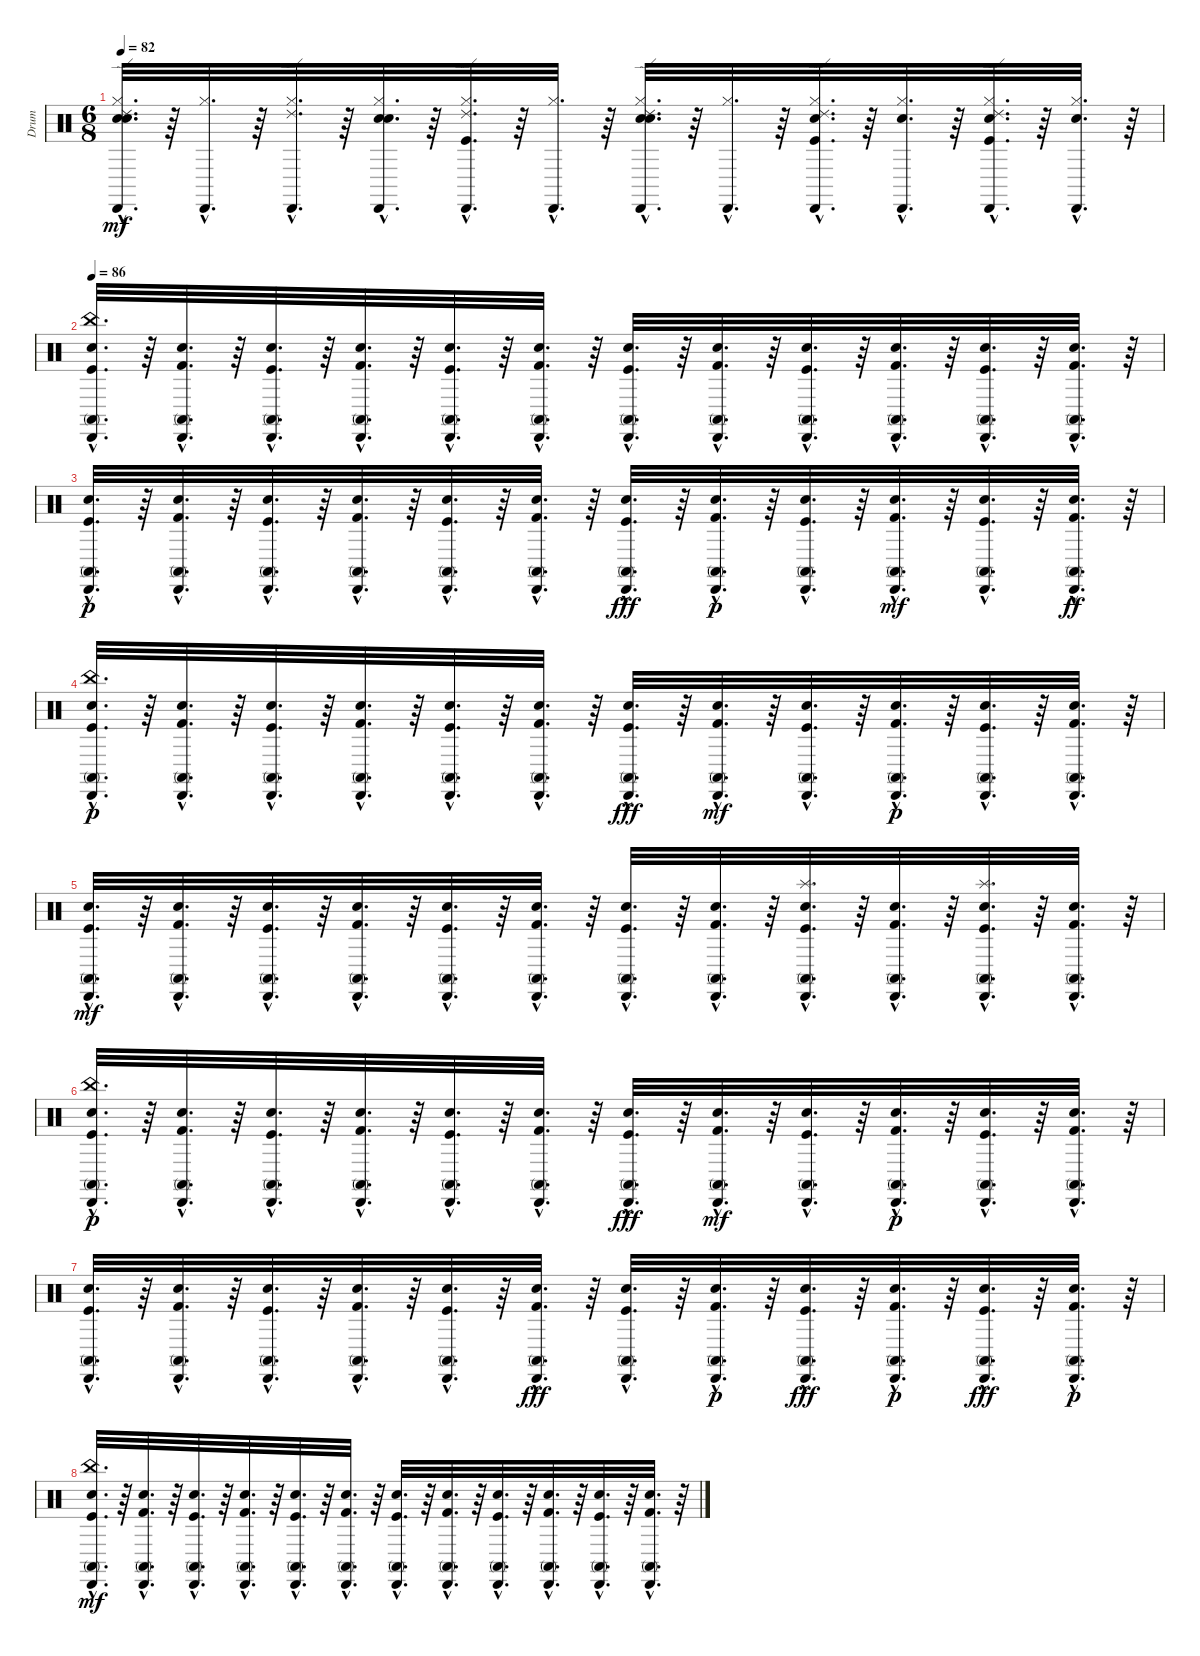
\track ("Drum" "Drum") {instrument percussion}
\staff {score}
\articulation defaults
\ts (6 8)
\tempo 82
\clef neutral
\ks c
("Electric Snare (hit)"{hac} "Cabasa (hit)"{hac} "Ride (edge) 2"{hac} "Snare (hit) 2"{hac} "Hi-Hat (closed)"{hac}).32{d dy mf} r.64 ("Cabasa (hit)"{hac} "Hi-Hat (closed)"{hac}).32{d} r.64 ("Cabasa (hit)"{hac} "Ride (edge) 2"{hac} "Hi-Hat (closed)"{hac}).32{d} r.64 ("Electric Snare (hit)"{hac} "Cabasa (hit)"{hac} "Hi-Hat (closed)"{hac} "Snare (hit) 2"{hac}).32{d} r.64 ("Cabasa (hit)"{hac} "Ride (edge) 2"{hac} "Hi-Hat (closed)"{hac} "Kick (hit)"{hac}).32{d} r.64 ("Cabasa (hit)"{hac} "Hi-Hat (closed)"{hac}).32{d} r.64 ("Electric Snare (hit)"{hac} "Cabasa (hit)"{hac} "Ride (edge) 2"{hac} "Snare (hit) 2"{hac} "Hi-Hat (closed)"{hac}).32{d} r.64 ("Cabasa (hit)"{hac} "Hi-Hat (closed)"{hac}).32{d} r.64 ("Kick (hit)"{hac} "Cabasa (hit)"{hac} "Ride (edge) 2"{hac} "Hi-Hat (closed)"{hac} "Snare (hit) 2"{hac}).32{d} r.64 ("Cabasa (hit)"{hac} "Hi-Hat (closed)"{hac} "Snare (hit) 2"{hac}).32{d} r.64 ("Cabasa (hit)"{hac} "Ride (edge) 2"{hac} "Snare (hit) 2"{hac} "Kick (hit)"{hac} "Hi-Hat (closed)"{hac}).32{d} r.64 ("Cabasa (hit)"{hac} "Snare (hit) 2"{hac} "Hi-Hat (closed)"{hac}).32{d} r.64 |
\tempo 86
("Electric Snare (hit)"{hac} "China (hit)"{hac} "Kick (hit)"{hac} "Cabasa (hit)"{hac} "Conga high (mute)"{hac}).32{d} r.64 ("Electric Snare (hit)"{hac} "Kick (hit) 2"{hac} "Cabasa (hit)"{hac} "Conga high (mute)"{hac}).32{d} r.64 ("Electric Snare (hit)"{hac} "Kick (hit)"{hac} "Cabasa (hit)"{hac} "Conga high (mute)"{hac}).32{d} r.64 ("Electric Snare (hit)"{hac} "Kick (hit) 2"{hac} "Cabasa (hit)"{hac} "Conga high (mute)"{hac}).32{d} r.64 ("Electric Snare (hit)"{hac} "Kick (hit)"{hac} "Cabasa (hit)"{hac} "Conga high (mute)"{hac}).32{d} r.64 ("Electric Snare (hit)"{hac} "Kick (hit) 2"{hac} "Cabasa (hit)"{hac} "Conga high (mute)"{hac}).32{d} r.64 ("Electric Snare (hit)"{hac} "Kick (hit)"{hac} "Cabasa (hit)"{hac} "Conga high (mute)"{hac}).32{d} r.64 ("Electric Snare (hit)"{hac} "Kick (hit) 2"{hac} "Cabasa (hit)"{hac} "Conga high (mute)"{hac}).32{d} r.64 ("Electric Snare (hit)"{hac} "Kick (hit)"{hac} "Cabasa (hit)"{hac} "Conga high (mute)"{hac}).32{d} r.64 ("Electric Snare (hit)"{hac} "Kick (hit) 2"{hac} "Cabasa (hit)"{hac} "Conga high (mute)"{hac}).32{d} r.64 ("Electric Snare (hit)"{hac} "Kick (hit)"{hac} "Cabasa (hit)"{hac} "Conga high (mute)"{hac}).32{d} r.64 ("Electric Snare (hit)"{hac} "Kick (hit) 2"{hac} "Cabasa (hit)"{hac} "Conga high (mute)"{hac}).32{d} r.64 |
("Conga high (mute)"{hac} "Cabasa (hit)"{hac} "Kick (hit)"{hac} "Electric Snare (hit)"{hac}).32{d dy p} r.64 ("Conga high (mute)"{hac} "Cabasa (hit)"{hac} "Kick (hit) 2"{hac} "Electric Snare (hit)"{hac}).32{d} r.64 ("Conga high (mute)"{hac} "Cabasa (hit)"{hac} "Kick (hit)"{hac} "Electric Snare (hit)"{hac}).32{d} r.64 ("Conga high (mute)"{hac} "Cabasa (hit)"{hac} "Kick (hit) 2"{hac} "Electric Snare (hit)"{hac}).32{d} r.64 ("Conga high (mute)"{hac} "Cabasa (hit)"{hac} "Kick (hit)"{hac} "Electric Snare (hit)"{hac}).32{d} r.64 ("Conga high (mute)"{hac} "Cabasa (hit)"{hac} "Kick (hit) 2"{hac} "Electric Snare (hit)"{hac}).32{d} r.64 ("Conga high (mute)"{hac} "Cabasa (hit)"{hac} "Kick (hit)"{hac} "Electric Snare (hit)"{hac}).32{d dy fff} r.64 ("Conga high (mute)"{hac} "Cabasa (hit)"{hac} "Kick (hit) 2"{hac} "Electric Snare (hit)"{hac}).32{d dy p} r.64 ("Conga high (mute)"{hac} "Cabasa (hit)"{hac} "Kick (hit)"{hac} "Electric Snare (hit)"{hac}).32{d} r.64 ("Conga high (mute)"{hac} "Cabasa (hit)"{hac} "Kick (hit) 2"{hac} "Electric Snare (hit)"{hac}).32{d dy mf} r.64 ("Conga high (mute)"{hac} "Cabasa (hit)"{hac} "Kick (hit)"{hac} "Electric Snare (hit)"{hac}).32{d} r.64 ("Conga high (mute)"{hac} "Cabasa (hit)"{hac} "Kick (hit) 2"{hac} "Electric Snare (hit)"{hac}).32{d dy ff} r.64 |
("Conga high (mute)"{hac} "Cabasa (hit)"{hac} "Kick (hit)"{hac} "China (hit)"{hac} "Electric Snare (hit)"{hac}).32{d dy p} r.64 ("Conga high (mute)"{hac} "Cabasa (hit)"{hac} "Kick (hit) 2"{hac} "Electric Snare (hit)"{hac}).32{d} r.64 ("Conga high (mute)"{hac} "Cabasa (hit)"{hac} "Kick (hit)"{hac} "Electric Snare (hit)"{hac}).32{d} r.64 ("Conga high (mute)"{hac} "Cabasa (hit)"{hac} "Kick (hit) 2"{hac} "Electric Snare (hit)"{hac}).32{d} r.64 ("Conga high (mute)"{hac} "Cabasa (hit)"{hac} "Kick (hit)"{hac} "Electric Snare (hit)"{hac}).32{d} r.64 ("Conga high (mute)"{hac} "Cabasa (hit)"{hac} "Kick (hit) 2"{hac} "Electric Snare (hit)"{hac}).32{d} r.64 ("Conga high (mute)"{hac} "Cabasa (hit)"{hac} "Kick (hit)"{hac} "Electric Snare (hit)"{hac}).32{d dy fff} r.64 ("Conga high (mute)"{hac} "Cabasa (hit)"{hac} "Kick (hit) 2"{hac} "Electric Snare (hit)"{hac}).32{d dy mf} r.64 ("Conga high (mute)"{hac} "Cabasa (hit)"{hac} "Kick (hit)"{hac} "Electric Snare (hit)"{hac}).32{d} r.64 ("Conga high (mute)"{hac} "Cabasa (hit)"{hac} "Kick (hit) 2"{hac} "Electric Snare (hit)"{hac}).32{d dy p} r.64 ("Conga high (mute)"{hac} "Cabasa (hit)"{hac} "Kick (hit)"{hac} "Electric Snare (hit)"{hac}).32{d} r.64 ("Conga high (mute)"{hac} "Cabasa (hit)"{hac} "Kick (hit) 2"{hac} "Electric Snare (hit)"{hac}).32{d} r.64 |
("Electric Snare (hit)"{hac} "Kick (hit)"{hac} "Cabasa (hit)"{hac} "Conga high (mute)"{hac}).32{d dy mf} r.64 ("Electric Snare (hit)"{hac} "Kick (hit) 2"{hac} "Cabasa (hit)"{hac} "Conga high (mute)"{hac}).32{d} r.64 ("Electric Snare (hit)"{hac} "Kick (hit)"{hac} "Cabasa (hit)"{hac} "Conga high (mute)"{hac}).32{d} r.64 ("Electric Snare (hit)"{hac} "Kick (hit) 2"{hac} "Cabasa (hit)"{hac} "Conga high (mute)"{hac}).32{d} r.64 ("Electric Snare (hit)"{hac} "Kick (hit)"{hac} "Cabasa (hit)"{hac} "Conga high (mute)"{hac}).32{d} r.64 ("Electric Snare (hit)"{hac} "Kick (hit) 2"{hac} "Cabasa (hit)"{hac} "Conga high (mute)"{hac}).32{d} r.64 ("Electric Snare (hit)"{hac} "Kick (hit)"{hac} "Cabasa (hit)"{hac} "Conga high (mute)"{hac}).32{d} r.64 ("Electric Snare (hit)"{hac} "Kick (hit) 2"{hac} "Cabasa (hit)"{hac} "Conga high (mute)"{hac}).32{d} r.64 ("Splash (hit)"{hac} "Electric Snare (hit)"{hac} "Kick (hit)"{hac} "Cabasa (hit)"{hac} "Conga high (mute)"{hac}).32{d} r.64 ("Electric Snare (hit)"{hac} "Kick (hit) 2"{hac} "Cabasa (hit)"{hac} "Conga high (mute)"{hac}).32{d} r.64 ("Splash (hit)"{hac} "Electric Snare (hit)"{hac} "Kick (hit)"{hac} "Cabasa (hit)"{hac} "Conga high (mute)"{hac}).32{d} r.64 ("Electric Snare (hit)"{hac} "Kick (hit) 2"{hac} "Cabasa (hit)"{hac} "Conga high (mute)"{hac}).32{d} r.64 |
("Conga high (mute)"{hac} "Cabasa (hit)"{hac} "Kick (hit)"{hac} "China (hit)"{hac} "Electric Snare (hit)"{hac}).32{d dy p} r.64 ("Conga high (mute)"{hac} "Cabasa (hit)"{hac} "Kick (hit) 2"{hac} "Electric Snare (hit)"{hac}).32{d} r.64 ("Conga high (mute)"{hac} "Cabasa (hit)"{hac} "Kick (hit)"{hac} "Electric Snare (hit)"{hac}).32{d} r.64 ("Conga high (mute)"{hac} "Cabasa (hit)"{hac} "Kick (hit) 2"{hac} "Electric Snare (hit)"{hac}).32{d} r.64 ("Conga high (mute)"{hac} "Cabasa (hit)"{hac} "Kick (hit)"{hac} "Electric Snare (hit)"{hac}).32{d} r.64 ("Conga high (mute)"{hac} "Cabasa (hit)"{hac} "Kick (hit) 2"{hac} "Electric Snare (hit)"{hac}).32{d} r.64 ("Conga high (mute)"{hac} "Cabasa (hit)"{hac} "Kick (hit)"{hac} "Electric Snare (hit)"{hac}).32{d dy fff} r.64 ("Conga high (mute)"{hac} "Cabasa (hit)"{hac} "Kick (hit) 2"{hac} "Electric Snare (hit)"{hac}).32{d dy mf} r.64 ("Conga high (mute)"{hac} "Cabasa (hit)"{hac} "Kick (hit)"{hac} "Electric Snare (hit)"{hac}).32{d} r.64 ("Conga high (mute)"{hac} "Cabasa (hit)"{hac} "Kick (hit) 2"{hac} "Electric Snare (hit)"{hac}).32{d dy p} r.64 ("Conga high (mute)"{hac} "Cabasa (hit)"{hac} "Kick (hit)"{hac} "Electric Snare (hit)"{hac}).32{d} r.64 ("Conga high (mute)"{hac} "Cabasa (hit)"{hac} "Kick (hit) 2"{hac} "Electric Snare (hit)"{hac}).32{d} r.64 |
("Conga high (mute)"{hac} "Cabasa (hit)"{hac} "Kick (hit)"{hac} "Electric Snare (hit)"{hac}).32{d} r.64 ("Conga high (mute)"{hac} "Cabasa (hit)"{hac} "Kick (hit) 2"{hac} "Electric Snare (hit)"{hac}).32{d} r.64 ("Conga high (mute)"{hac} "Cabasa (hit)"{hac} "Kick (hit)"{hac} "Electric Snare (hit)"{hac}).32{d} r.64 ("Conga high (mute)"{hac} "Cabasa (hit)"{hac} "Kick (hit) 2"{hac} "Electric Snare (hit)"{hac}).32{d} r.64 ("Conga high (mute)"{hac} "Cabasa (hit)"{hac} "Kick (hit)"{hac} "Electric Snare (hit)"{hac}).32{d} r.64 ("Conga high (mute)"{hac} "Cabasa (hit)"{hac} "Kick (hit) 2"{hac} "Electric Snare (hit)"{hac}).32{d dy fff} r.64 ("Conga high (mute)"{hac} "Cabasa (hit)"{hac} "Kick (hit)"{hac} "Electric Snare (hit)"{hac}).32{d} r.64 ("Conga high (mute)"{hac} "Cabasa (hit)"{hac} "Kick (hit) 2"{hac} "Electric Snare (hit)"{hac}).32{d dy p} r.64 ("Conga high (mute)"{hac} "Cabasa (hit)"{hac} "Kick (hit)"{hac} "Electric Snare (hit)"{hac}).32{d dy fff} r.64 ("Conga high (mute)"{hac} "Cabasa (hit)"{hac} "Kick (hit) 2"{hac} "Electric Snare (hit)"{hac}).32{d dy p} r.64 ("Conga high (mute)"{hac} "Cabasa (hit)"{hac} "Kick (hit)"{hac} "Electric Snare (hit)"{hac}).32{d dy fff} r.64 ("Conga high (mute)"{hac} "Cabasa (hit)"{hac} "Kick (hit) 2"{hac} "Electric Snare (hit)"{hac}).32{d dy p} r.64 |
("Electric Snare (hit)"{hac} "China (hit)"{hac} "Kick (hit)"{hac} "Cabasa (hit)"{hac} "Conga high (mute)"{hac}).32{d dy mf} r.64 ("Electric Snare (hit)"{hac} "Kick (hit) 2"{hac} "Cabasa (hit)"{hac} "Conga high (mute)"{hac}).32{d} r.64 ("Electric Snare (hit)"{hac} "Kick (hit)"{hac} "Cabasa (hit)"{hac} "Conga high (mute)"{hac}).32{d} r.64 ("Electric Snare (hit)"{hac} "Kick (hit) 2"{hac} "Cabasa (hit)"{hac} "Conga high (mute)"{hac}).32{d} r.64 ("Electric Snare (hit)"{hac} "Kick (hit)"{hac} "Cabasa (hit)"{hac} "Conga high (mute)"{hac}).32{d} r.64 ("Electric Snare (hit)"{hac} "Kick (hit) 2"{hac} "Cabasa (hit)"{hac} "Conga high (mute)"{hac}).32{d} r.64 ("Electric Snare (hit)"{hac} "Kick (hit)"{hac} "Cabasa (hit)"{hac} "Conga high (mute)"{hac}).32{d} r.64 ("Electric Snare (hit)"{hac} "Kick (hit) 2"{hac} "Cabasa (hit)"{hac} "Conga high (mute)"{hac}).32{d} r.64 ("Electric Snare (hit)"{hac} "Kick (hit)"{hac} "Cabasa (hit)"{hac} "Conga high (mute)"{hac}).32{d} r.64 ("Electric Snare (hit)"{hac} "Kick (hit) 2"{hac} "Cabasa (hit)"{hac} "Conga high (mute)"{hac}).32{d} r.64 ("Electric Snare (hit)"{hac} "Kick (hit)"{hac} "Cabasa (hit)"{hac} "Conga high (mute)"{hac}).32{d} r.64 ("Electric Snare (hit)"{hac} "Kick (hit) 2"{hac} "Cabasa (hit)"{hac} "Conga high (mute)"{hac}).32{d} r.64
